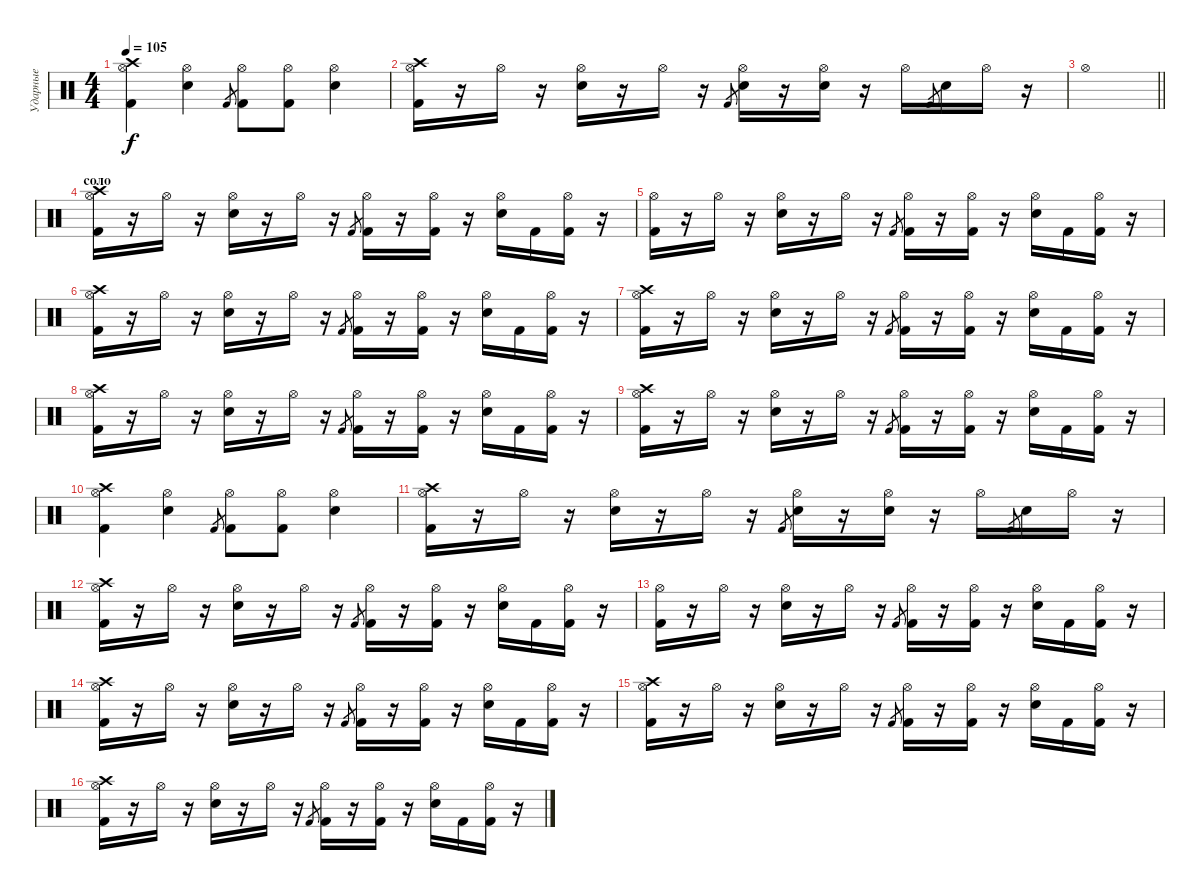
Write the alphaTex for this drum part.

\track ("Ударные" "Ударные") {instrument percussion}
\staff {score}
\articulation defaults
\ts (4 4)
\tempo 105
\clef neutral
\ks c
("Hi-Hat (open)" "Crash high (hit)" "Kick (hit) 2").4{dy f} ("Hi-Hat (open)" "Electric Snare (hit)").4 "Kick (hit) 2".8{gr} ("Hi-Hat (open)" "Kick (hit) 2").8 ("Hi-Hat (open)" "Kick (hit) 2").8 ("Hi-Hat (open)" "Electric Snare (hit)").4 |
("Hi-Hat (open)" "Crash high (hit)" "Kick (hit) 2").16 r.16 "Hi-Hat (open)".16 r.16 ("Hi-Hat (open)" "Electric Snare (hit)").16 r.16 "Hi-Hat (open)".16 r.16 "Kick (hit) 2".8{gr} ("Hi-Hat (open)" "Electric Snare (hit)").16 r.16 ("Hi-Hat (open)" "Electric Snare (hit)").16 r.16 "Hi-Hat (open)".16 "Kick (hit) 2".8{gr} "Electric Snare (hit)".16 "Hi-Hat (open)".16 r.16 |
\barLineRight lightlight "Hi-Hat (open)".1
|
\section ("" "соло")
("Hi-Hat (open)" "Crash high (hit)" "Kick (hit) 2").16 r.16 "Hi-Hat (open)".16 r.16 ("Hi-Hat (open)" "Electric Snare (hit)").16 r.16 "Hi-Hat (open)".16 r.16 "Kick (hit) 2".8{gr} ("Hi-Hat (open)" "Kick (hit) 2").16 r.16 ("Hi-Hat (open)" "Kick (hit) 2").16 r.16 ("Hi-Hat (open)" "Electric Snare (hit)").16 "Kick (hit) 2".16 ("Hi-Hat (open)" "Kick (hit) 2").16 r.16 |
("Hi-Hat (open)" "Kick (hit) 2").16 r.16 "Hi-Hat (open)".16 r.16 ("Hi-Hat (open)" "Electric Snare (hit)").16 r.16 "Hi-Hat (open)".16 r.16 "Kick (hit) 2".8{gr} ("Hi-Hat (open)" "Kick (hit) 2").16 r.16 ("Hi-Hat (open)" "Kick (hit) 2").16 r.16 ("Hi-Hat (open)" "Electric Snare (hit)").16 "Kick (hit) 2".16 ("Hi-Hat (open)" "Kick (hit) 2").16 r.16 |
("Hi-Hat (open)" "Crash high (hit)" "Kick (hit) 2").16 r.16 "Hi-Hat (open)".16 r.16 ("Hi-Hat (open)" "Electric Snare (hit)").16 r.16 "Hi-Hat (open)".16 r.16 "Kick (hit) 2".8{gr} ("Hi-Hat (open)" "Kick (hit) 2").16 r.16 ("Hi-Hat (open)" "Kick (hit) 2").16 r.16 ("Hi-Hat (open)" "Electric Snare (hit)").16 "Kick (hit) 2".16 ("Hi-Hat (open)" "Kick (hit) 2").16 r.16 |
("Hi-Hat (open)" "Crash high (hit)" "Kick (hit) 2").16 r.16 "Hi-Hat (open)".16 r.16 ("Hi-Hat (open)" "Electric Snare (hit)").16 r.16 "Hi-Hat (open)".16 r.16 "Kick (hit) 2".8{gr} ("Hi-Hat (open)" "Kick (hit) 2").16 r.16 ("Hi-Hat (open)" "Kick (hit) 2").16 r.16 ("Hi-Hat (open)" "Electric Snare (hit)").16 "Kick (hit) 2".16 ("Hi-Hat (open)" "Kick (hit) 2").16 r.16 |
("Hi-Hat (open)" "Crash high (hit)" "Kick (hit) 2").16 r.16 "Hi-Hat (open)".16 r.16 ("Hi-Hat (open)" "Electric Snare (hit)").16 r.16 "Hi-Hat (open)".16 r.16 "Kick (hit) 2".8{gr} ("Hi-Hat (open)" "Kick (hit) 2").16 r.16 ("Hi-Hat (open)" "Kick (hit) 2").16 r.16 ("Hi-Hat (open)" "Electric Snare (hit)").16 "Kick (hit) 2".16 ("Hi-Hat (open)" "Kick (hit) 2").16 r.16 |
("Hi-Hat (open)" "Crash high (hit)" "Kick (hit) 2").16 r.16 "Hi-Hat (open)".16 r.16 ("Hi-Hat (open)" "Electric Snare (hit)").16 r.16 "Hi-Hat (open)".16 r.16 "Kick (hit) 2".8{gr} ("Hi-Hat (open)" "Kick (hit) 2").16 r.16 ("Hi-Hat (open)" "Kick (hit) 2").16 r.16 ("Hi-Hat (open)" "Electric Snare (hit)").16 "Kick (hit) 2".16 ("Hi-Hat (open)" "Kick (hit) 2").16 r.16 |
("Hi-Hat (open)" "Crash high (hit)" "Kick (hit) 2").4 ("Hi-Hat (open)" "Electric Snare (hit)").4 "Kick (hit) 2".8{gr} ("Hi-Hat (open)" "Kick (hit) 2").8 ("Hi-Hat (open)" "Kick (hit) 2").8 ("Hi-Hat (open)" "Electric Snare (hit)").4 |
("Hi-Hat (open)" "Crash high (hit)" "Kick (hit) 2").16 r.16 "Hi-Hat (open)".16 r.16 ("Hi-Hat (open)" "Electric Snare (hit)").16 r.16 "Hi-Hat (open)".16 r.16 "Kick (hit) 2".8{gr} ("Hi-Hat (open)" "Electric Snare (hit)").16 r.16 ("Hi-Hat (open)" "Electric Snare (hit)").16 r.16 "Hi-Hat (open)".16 "Kick (hit) 2".8{gr} "Electric Snare (hit)".16 "Hi-Hat (open)".16 r.16 |
("Hi-Hat (open)" "Crash high (hit)" "Kick (hit) 2").16 r.16 "Hi-Hat (open)".16 r.16 ("Hi-Hat (open)" "Electric Snare (hit)").16 r.16 "Hi-Hat (open)".16 r.16 "Kick (hit) 2".8{gr} ("Hi-Hat (open)" "Kick (hit) 2").16 r.16 ("Hi-Hat (open)" "Kick (hit) 2").16 r.16 ("Hi-Hat (open)" "Electric Snare (hit)").16 "Kick (hit) 2".16 ("Hi-Hat (open)" "Kick (hit) 2").16 r.16 |
("Hi-Hat (open)" "Kick (hit) 2").16 r.16 "Hi-Hat (open)".16 r.16 ("Hi-Hat (open)" "Electric Snare (hit)").16 r.16 "Hi-Hat (open)".16 r.16 "Kick (hit) 2".8{gr} ("Hi-Hat (open)" "Kick (hit) 2").16 r.16 ("Hi-Hat (open)" "Kick (hit) 2").16 r.16 ("Hi-Hat (open)" "Electric Snare (hit)").16 "Kick (hit) 2".16 ("Hi-Hat (open)" "Kick (hit) 2").16 r.16 |
("Hi-Hat (open)" "Crash high (hit)" "Kick (hit) 2").16 r.16 "Hi-Hat (open)".16 r.16 ("Hi-Hat (open)" "Electric Snare (hit)").16 r.16 "Hi-Hat (open)".16 r.16 "Kick (hit) 2".8{gr} ("Hi-Hat (open)" "Kick (hit) 2").16 r.16 ("Hi-Hat (open)" "Kick (hit) 2").16 r.16 ("Hi-Hat (open)" "Electric Snare (hit)").16 "Kick (hit) 2".16 ("Hi-Hat (open)" "Kick (hit) 2").16 r.16 |
("Hi-Hat (open)" "Crash high (hit)" "Kick (hit) 2").16 r.16 "Hi-Hat (open)".16 r.16 ("Hi-Hat (open)" "Electric Snare (hit)").16 r.16 "Hi-Hat (open)".16 r.16 "Kick (hit) 2".8{gr} ("Hi-Hat (open)" "Kick (hit) 2").16 r.16 ("Hi-Hat (open)" "Kick (hit) 2").16 r.16 ("Hi-Hat (open)" "Electric Snare (hit)").16 "Kick (hit) 2".16 ("Hi-Hat (open)" "Kick (hit) 2").16 r.16 |
("Hi-Hat (open)" "Crash high (hit)" "Kick (hit) 2").16 r.16 "Hi-Hat (open)".16 r.16 ("Hi-Hat (open)" "Electric Snare (hit)").16 r.16 "Hi-Hat (open)".16 r.16 "Kick (hit) 2".8{gr} ("Hi-Hat (open)" "Kick (hit) 2").16 r.16 ("Hi-Hat (open)" "Kick (hit) 2").16 r.16 ("Hi-Hat (open)" "Electric Snare (hit)").16 "Kick (hit) 2".16 ("Hi-Hat (open)" "Kick (hit) 2").16 r.16
